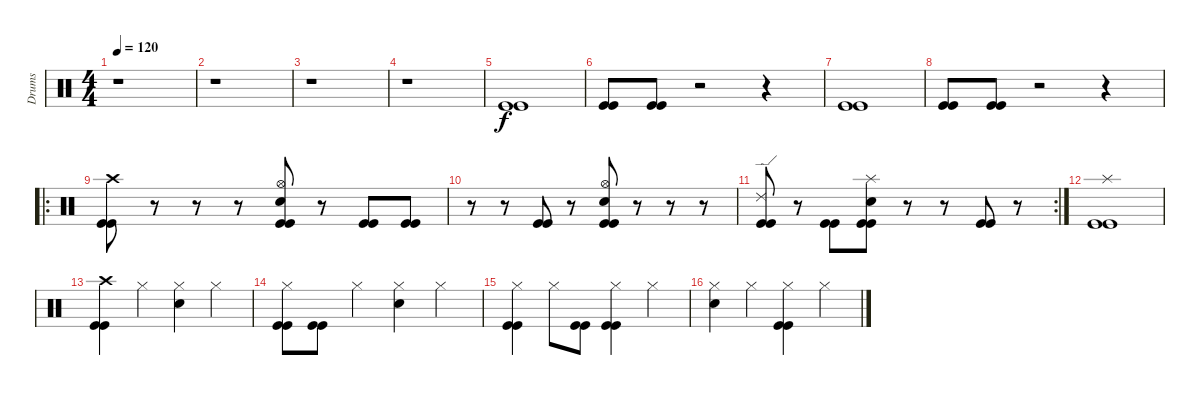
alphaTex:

\track ("Drums" "Drums") {instrument percussion}
\staff {score}
\articulation defaults
\ts (4 4)
\tempo 120
\clef neutral
\ks c
r.1{dy f} |
r.1 |
r.1 |
r.1 |
("Kick (hit)" "Kick (hit)").1 |
("Kick (hit)" "Kick (hit)").8 ("Kick (hit)" "Kick (hit)").8 r.2 r.4 |
("Kick (hit)" "Kick (hit)").1 |
("Kick (hit)" "Kick (hit)").8 ("Kick (hit)" "Kick (hit)").8 r.2 r.4 |
\ro
("Crash high (hit)" "Kick (hit)" "Kick (hit)").8 r.8 r.8 r.8 ("Hi-Hat (open)" "Snare (hit) 2" "Kick (hit)" "Kick (hit)").8 r.8 ("Kick (hit)" "Kick (hit)").8 ("Kick (hit)" "Kick (hit)").8 |
r.8 r.8 ("Kick (hit)" "Kick (hit)").8 r.8 ("Hi-Hat (open)" "Snare (hit) 2" "Kick (hit)" "Kick (hit)").8 r.8 r.8 r.8 |
\rc 2
("Ride (edge) 2" "Kick (hit)" "Kick (hit)").8 r.8 ("Kick (hit)" "Kick (hit)").8 ("Splash (hit)" "Snare (hit) 2" "Kick (hit)" "Kick (hit)").8 r.8 r.8 ("Kick (hit)" "Kick (hit)").8 r.8 |
("Splash (hit)" "Kick (hit)" "Kick (hit)").1 |
("Crash high (hit)" "Kick (hit)" "Kick (hit)").4 "Hi-Hat (closed)".4 ("Hi-Hat (closed)" "Snare (hit) 2").4 "Hi-Hat (closed)".4 |
("Hi-Hat (closed)" "Kick (hit)" "Kick (hit)").8 ("Kick (hit)" "Kick (hit)").8 "Hi-Hat (closed)".4 ("Hi-Hat (closed)" "Snare (hit) 2").4 "Hi-Hat (closed)".4 |
("Hi-Hat (closed)" "Kick (hit)" "Kick (hit)").4 "Hi-Hat (closed)".8 ("Kick (hit)" "Kick (hit)").8 ("Hi-Hat (closed)" "Kick (hit)" "Kick (hit)").4 "Hi-Hat (closed)".4 |
("Hi-Hat (closed)" "Snare (hit) 2").4 "Hi-Hat (closed)".4 ("Hi-Hat (closed)" "Kick (hit)" "Kick (hit)").4 "Hi-Hat (closed)".4
